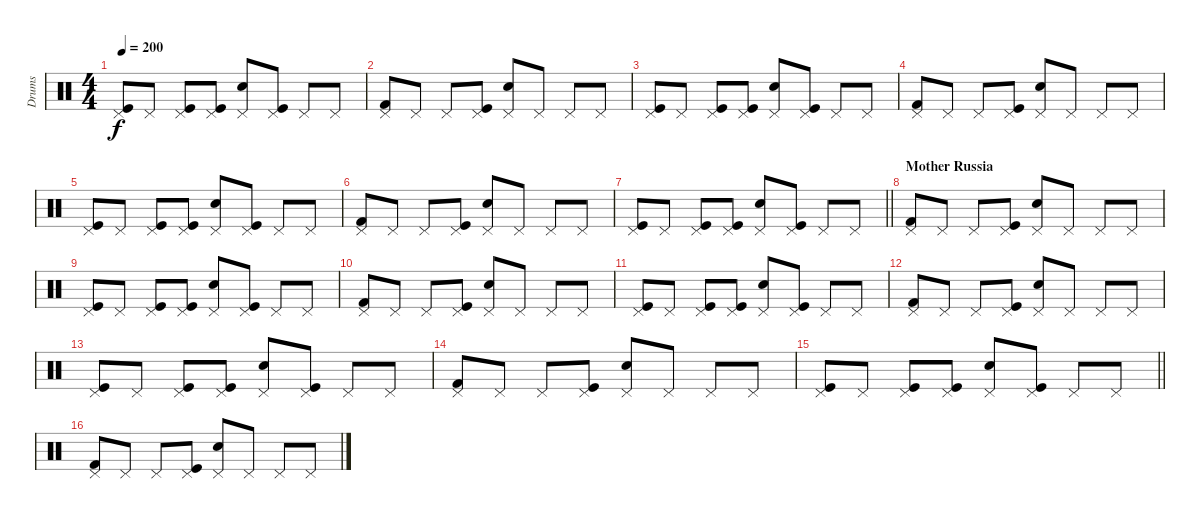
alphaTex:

\track ("Drums" "Drums") {instrument percussion}
\staff {score}
\articulation defaults
\ts (4 4)
\tempo 200
\clef neutral
\ks c
("Kick (hit)" "Pedal Hi-Hat (hit)").8{dy f} "Pedal Hi-Hat (hit)".8 ("Kick (hit)" "Pedal Hi-Hat (hit)").8 ("Kick (hit)" "Pedal Hi-Hat (hit)").8 ("Snare (hit) 2" "Pedal Hi-Hat (hit)").8 ("Kick (hit)" "Pedal Hi-Hat (hit)").8 "Pedal Hi-Hat (hit)".8 "Pedal Hi-Hat (hit)".8 |
("Kick (hit) 2" "Pedal Hi-Hat (hit)").8 "Pedal Hi-Hat (hit)".8 "Pedal Hi-Hat (hit)".8 ("Kick (hit)" "Pedal Hi-Hat (hit)").8 ("Snare (hit) 2" "Pedal Hi-Hat (hit)").8 "Pedal Hi-Hat (hit)".8 "Pedal Hi-Hat (hit)".8 "Pedal Hi-Hat (hit)".8 |
("Kick (hit)" "Pedal Hi-Hat (hit)").8 "Pedal Hi-Hat (hit)".8 ("Kick (hit)" "Pedal Hi-Hat (hit)").8 ("Kick (hit)" "Pedal Hi-Hat (hit)").8 ("Snare (hit) 2" "Pedal Hi-Hat (hit)").8 ("Kick (hit)" "Pedal Hi-Hat (hit)").8 "Pedal Hi-Hat (hit)".8 "Pedal Hi-Hat (hit)".8 |
("Kick (hit) 2" "Pedal Hi-Hat (hit)").8 "Pedal Hi-Hat (hit)".8 "Pedal Hi-Hat (hit)".8 ("Kick (hit)" "Pedal Hi-Hat (hit)").8 ("Snare (hit) 2" "Pedal Hi-Hat (hit)").8 "Pedal Hi-Hat (hit)".8 "Pedal Hi-Hat (hit)".8 "Pedal Hi-Hat (hit)".8 |
("Kick (hit)" "Pedal Hi-Hat (hit)").8 "Pedal Hi-Hat (hit)".8 ("Kick (hit)" "Pedal Hi-Hat (hit)").8 ("Kick (hit)" "Pedal Hi-Hat (hit)").8 ("Snare (hit) 2" "Pedal Hi-Hat (hit)").8 ("Kick (hit)" "Pedal Hi-Hat (hit)").8 "Pedal Hi-Hat (hit)".8 "Pedal Hi-Hat (hit)".8 |
("Kick (hit) 2" "Pedal Hi-Hat (hit)").8 "Pedal Hi-Hat (hit)".8 "Pedal Hi-Hat (hit)".8 ("Kick (hit)" "Pedal Hi-Hat (hit)").8 ("Snare (hit) 2" "Pedal Hi-Hat (hit)").8 "Pedal Hi-Hat (hit)".8 "Pedal Hi-Hat (hit)".8 "Pedal Hi-Hat (hit)".8 |
\barLineRight lightlight
("Kick (hit)" "Pedal Hi-Hat (hit)").8 "Pedal Hi-Hat (hit)".8 ("Kick (hit)" "Pedal Hi-Hat (hit)").8 ("Kick (hit)" "Pedal Hi-Hat (hit)").8 ("Snare (hit) 2" "Pedal Hi-Hat (hit)").8 ("Kick (hit)" "Pedal Hi-Hat (hit)").8 "Pedal Hi-Hat (hit)".8 "Pedal Hi-Hat (hit)".8 |
\section ("" "Mother Russia")
("Kick (hit) 2" "Pedal Hi-Hat (hit)").8 "Pedal Hi-Hat (hit)".8 "Pedal Hi-Hat (hit)".8 ("Kick (hit)" "Pedal Hi-Hat (hit)").8 ("Snare (hit) 2" "Pedal Hi-Hat (hit)").8 "Pedal Hi-Hat (hit)".8 "Pedal Hi-Hat (hit)".8 "Pedal Hi-Hat (hit)".8 |
("Kick (hit)" "Pedal Hi-Hat (hit)").8 "Pedal Hi-Hat (hit)".8 ("Kick (hit)" "Pedal Hi-Hat (hit)").8 ("Kick (hit)" "Pedal Hi-Hat (hit)").8 ("Snare (hit) 2" "Pedal Hi-Hat (hit)").8 ("Kick (hit)" "Pedal Hi-Hat (hit)").8 "Pedal Hi-Hat (hit)".8 "Pedal Hi-Hat (hit)".8 |
("Kick (hit) 2" "Pedal Hi-Hat (hit)").8 "Pedal Hi-Hat (hit)".8 "Pedal Hi-Hat (hit)".8 ("Kick (hit)" "Pedal Hi-Hat (hit)").8 ("Snare (hit) 2" "Pedal Hi-Hat (hit)").8 "Pedal Hi-Hat (hit)".8 "Pedal Hi-Hat (hit)".8 "Pedal Hi-Hat (hit)".8 |
("Kick (hit)" "Pedal Hi-Hat (hit)").8 "Pedal Hi-Hat (hit)".8 ("Kick (hit)" "Pedal Hi-Hat (hit)").8 ("Kick (hit)" "Pedal Hi-Hat (hit)").8 ("Snare (hit) 2" "Pedal Hi-Hat (hit)").8 ("Kick (hit)" "Pedal Hi-Hat (hit)").8 "Pedal Hi-Hat (hit)".8 "Pedal Hi-Hat (hit)".8 |
("Kick (hit) 2" "Pedal Hi-Hat (hit)").8 "Pedal Hi-Hat (hit)".8 "Pedal Hi-Hat (hit)".8 ("Kick (hit)" "Pedal Hi-Hat (hit)").8 ("Snare (hit) 2" "Pedal Hi-Hat (hit)").8 "Pedal Hi-Hat (hit)".8 "Pedal Hi-Hat (hit)".8 "Pedal Hi-Hat (hit)".8 |
("Kick (hit)" "Pedal Hi-Hat (hit)").8 "Pedal Hi-Hat (hit)".8 ("Kick (hit)" "Pedal Hi-Hat (hit)").8 ("Kick (hit)" "Pedal Hi-Hat (hit)").8 ("Snare (hit) 2" "Pedal Hi-Hat (hit)").8 ("Kick (hit)" "Pedal Hi-Hat (hit)").8 "Pedal Hi-Hat (hit)".8 "Pedal Hi-Hat (hit)".8 |
("Kick (hit) 2" "Pedal Hi-Hat (hit)").8 "Pedal Hi-Hat (hit)".8 "Pedal Hi-Hat (hit)".8 ("Kick (hit)" "Pedal Hi-Hat (hit)").8 ("Snare (hit) 2" "Pedal Hi-Hat (hit)").8 "Pedal Hi-Hat (hit)".8 "Pedal Hi-Hat (hit)".8 "Pedal Hi-Hat (hit)".8 |
\barLineRight lightlight
("Kick (hit)" "Pedal Hi-Hat (hit)").8 "Pedal Hi-Hat (hit)".8 ("Kick (hit)" "Pedal Hi-Hat (hit)").8 ("Kick (hit)" "Pedal Hi-Hat (hit)").8 ("Snare (hit) 2" "Pedal Hi-Hat (hit)").8 ("Kick (hit)" "Pedal Hi-Hat (hit)").8 "Pedal Hi-Hat (hit)".8 "Pedal Hi-Hat (hit)".8 |
("Kick (hit) 2" "Pedal Hi-Hat (hit)").8 "Pedal Hi-Hat (hit)".8 "Pedal Hi-Hat (hit)".8 ("Kick (hit)" "Pedal Hi-Hat (hit)").8 ("Snare (hit) 2" "Pedal Hi-Hat (hit)").8 "Pedal Hi-Hat (hit)".8 "Pedal Hi-Hat (hit)".8 "Pedal Hi-Hat (hit)".8
